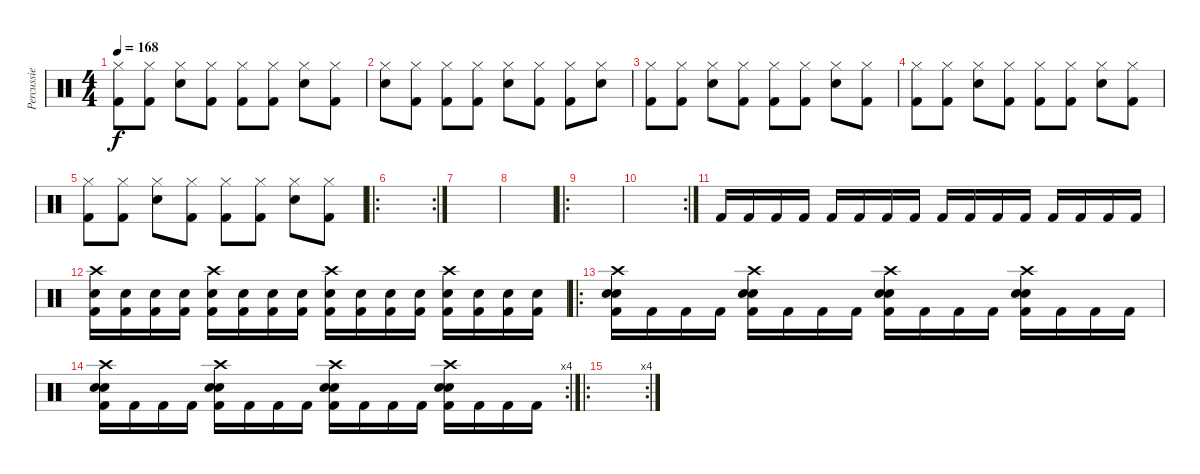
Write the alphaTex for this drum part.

\track ("Percussie" "Percussie") {instrument percussion}
\staff {score}
\articulation defaults
\ts (4 4)
\tempo 168
\clef neutral
\ks c
("Hi-Hat (closed)" "Kick (hit) 2").8{dy f} ("Hi-Hat (closed)" "Kick (hit) 2").8 ("Hi-Hat (closed)" "Snare (hit) 2").8 ("Hi-Hat (closed)" "Kick (hit) 2").8 ("Hi-Hat (closed)" "Kick (hit) 2").8 ("Hi-Hat (closed)" "Kick (hit) 2").8 ("Hi-Hat (closed)" "Snare (hit) 2").8 ("Hi-Hat (closed)" "Kick (hit) 2").8 |
("Hi-Hat (closed)" "Snare (hit) 2").8 ("Hi-Hat (closed)" "Kick (hit) 2").8 ("Hi-Hat (closed)" "Kick (hit) 2").8 ("Hi-Hat (closed)" "Kick (hit) 2").8 ("Hi-Hat (closed)" "Snare (hit) 2").8 ("Hi-Hat (closed)" "Kick (hit) 2").8 ("Hi-Hat (closed)" "Kick (hit) 2").8 ("Hi-Hat (closed)" "Snare (hit) 2").8 |
("Hi-Hat (closed)" "Kick (hit) 2").8 ("Hi-Hat (closed)" "Kick (hit) 2").8 ("Hi-Hat (closed)" "Snare (hit) 2").8 ("Hi-Hat (closed)" "Kick (hit) 2").8 ("Hi-Hat (closed)" "Kick (hit) 2").8 ("Hi-Hat (closed)" "Kick (hit) 2").8 ("Hi-Hat (closed)" "Snare (hit) 2").8 ("Hi-Hat (closed)" "Kick (hit) 2").8 |
("Hi-Hat (closed)" "Kick (hit) 2").8 ("Hi-Hat (closed)" "Kick (hit) 2").8 ("Hi-Hat (closed)" "Snare (hit) 2").8 ("Hi-Hat (closed)" "Kick (hit) 2").8 ("Hi-Hat (closed)" "Kick (hit) 2").8 ("Hi-Hat (closed)" "Kick (hit) 2").8 ("Hi-Hat (closed)" "Snare (hit) 2").8 ("Hi-Hat (closed)" "Kick (hit) 2").8 |
("Hi-Hat (closed)" "Kick (hit) 2").8 ("Hi-Hat (closed)" "Kick (hit) 2").8 ("Hi-Hat (closed)" "Snare (hit) 2").8 ("Hi-Hat (closed)" "Kick (hit) 2").8 ("Hi-Hat (closed)" "Kick (hit) 2").8 ("Hi-Hat (closed)" "Kick (hit) 2").8 ("Hi-Hat (closed)" "Snare (hit) 2").8 ("Hi-Hat (closed)" "Kick (hit) 2").8 |
\ro
\rc 2
|
|
|
\ro
|
\rc 2
|
"Kick (hit) 2".16 "Kick (hit) 2".16 "Kick (hit) 2".16 "Kick (hit) 2".16 "Kick (hit) 2".16 "Kick (hit) 2".16 "Kick (hit) 2".16 "Kick (hit) 2".16 "Kick (hit) 2".16 "Kick (hit) 2".16 "Kick (hit) 2".16 "Kick (hit) 2".16 "Kick (hit) 2".16 "Kick (hit) 2".16 "Kick (hit) 2".16 "Kick (hit) 2".16 |
("Crash high (hit)" "Snare (hit) 2" "Kick (hit) 2").16 ("Snare (hit) 2" "Kick (hit) 2").16 ("Snare (hit) 2" "Kick (hit) 2").16 ("Snare (hit) 2" "Kick (hit) 2").16 ("Crash high (hit)" "Snare (hit) 2" "Kick (hit) 2").16 ("Snare (hit) 2" "Kick (hit) 2").16 ("Snare (hit) 2" "Kick (hit) 2").16 ("Snare (hit) 2" "Kick (hit) 2").16 ("Crash high (hit)" "Snare (hit) 2" "Kick (hit) 2").16 ("Snare (hit) 2" "Kick (hit) 2").16 ("Snare (hit) 2" "Kick (hit) 2").16 ("Snare (hit) 2" "Kick (hit) 2").16 ("Crash high (hit)" "Snare (hit) 2" "Kick (hit) 2").16 ("Snare (hit) 2" "Kick (hit) 2").16 ("Snare (hit) 2" "Kick (hit) 2").16 ("Snare (hit) 2" "Kick (hit) 2").16 |
\ro
("Crash high (hit)" "Snare (hit) 2" "Snare (hit) 2" "Kick (hit) 2").16 "Kick (hit) 2".16 "Kick (hit) 2".16 "Kick (hit) 2".16 ("Crash high (hit)" "Snare (hit) 2" "Snare (hit) 2" "Kick (hit) 2").16 "Kick (hit) 2".16 "Kick (hit) 2".16 "Kick (hit) 2".16 ("Crash high (hit)" "Snare (hit) 2" "Snare (hit) 2" "Kick (hit) 2").16 "Kick (hit) 2".16 "Kick (hit) 2".16 "Kick (hit) 2".16 ("Crash high (hit)" "Snare (hit) 2" "Snare (hit) 2" "Kick (hit) 2").16 "Kick (hit) 2".16 "Kick (hit) 2".16 "Kick (hit) 2".16 |
\rc 4
("Crash high (hit)" "Snare (hit) 2" "Snare (hit) 2" "Kick (hit) 2").16 "Kick (hit) 2".16 "Kick (hit) 2".16 "Kick (hit) 2".16 ("Crash high (hit)" "Snare (hit) 2" "Snare (hit) 2" "Kick (hit) 2").16 "Kick (hit) 2".16 "Kick (hit) 2".16 "Kick (hit) 2".16 ("Crash high (hit)" "Snare (hit) 2" "Snare (hit) 2" "Kick (hit) 2").16 "Kick (hit) 2".16 "Kick (hit) 2".16 "Kick (hit) 2".16 ("Crash high (hit)" "Snare (hit) 2" "Snare (hit) 2" "Kick (hit) 2").16 "Kick (hit) 2".16 "Kick (hit) 2".16 "Kick (hit) 2".16 |
\ro
\rc 4
